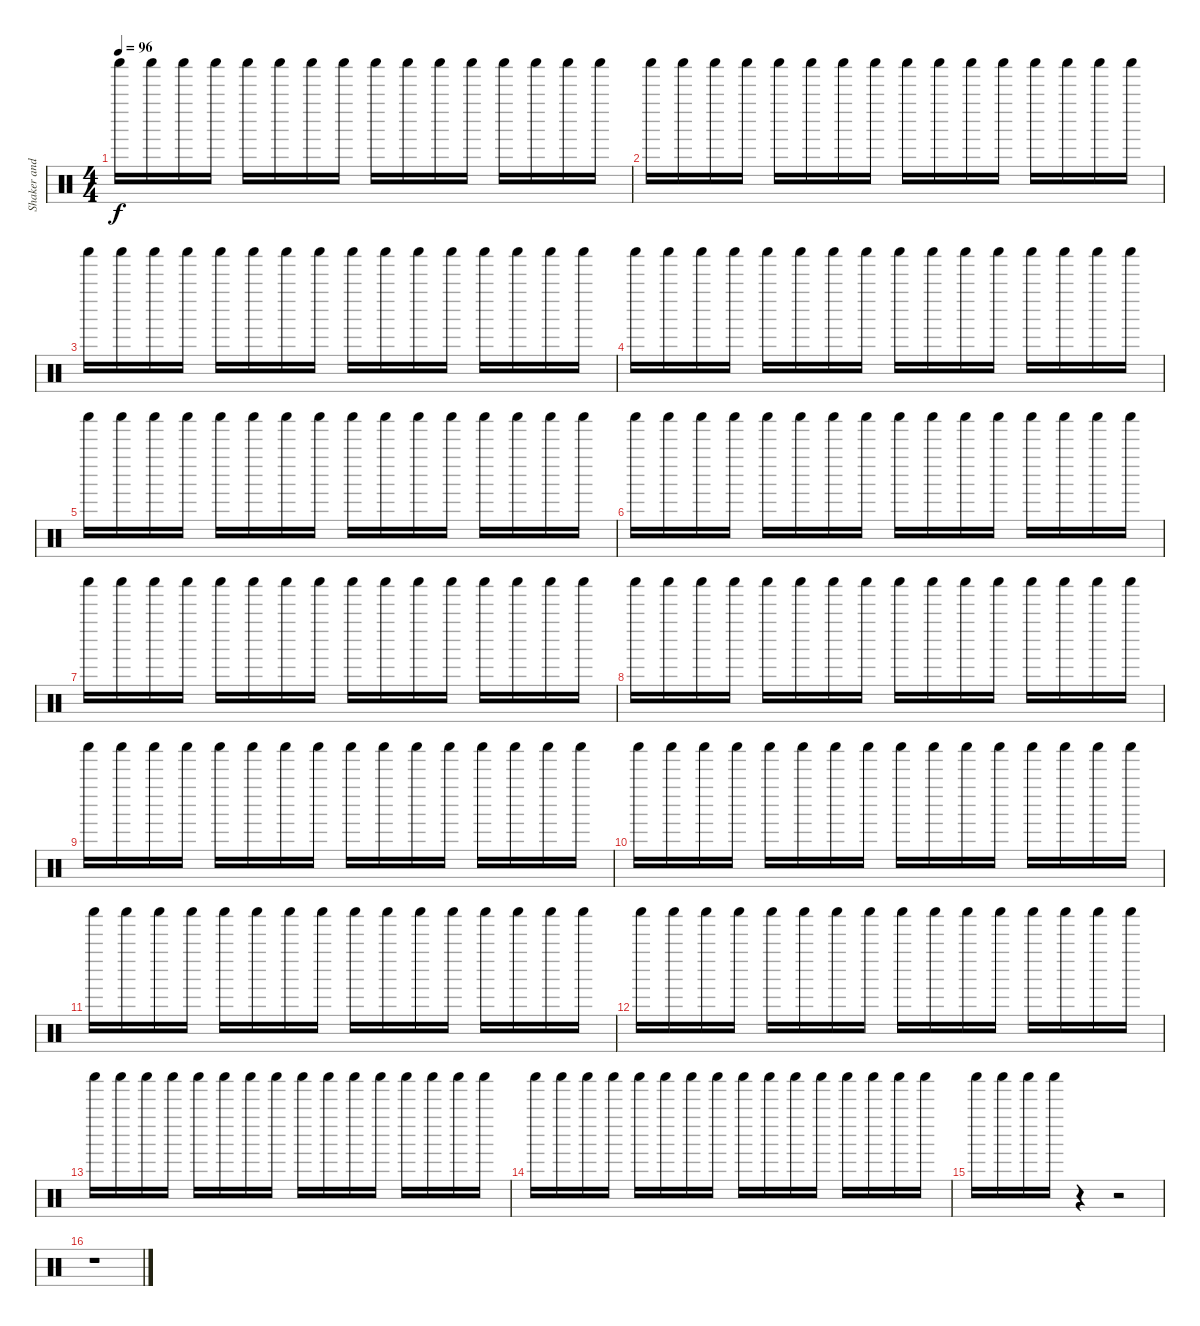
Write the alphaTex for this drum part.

\track ("Shaker and Tambourine" "Shaker and") {instrument percussion}
\staff {score}
\articulation defaults
\ts (4 4)
\tempo 96
\clef neutral
\ks c "Shaker (hit)".16{dy f} "Shaker (hit)".16 "Shaker (hit)".16 "Shaker (hit)".16 "Shaker (hit)".16 "Shaker (hit)".16 "Shaker (hit)".16 "Shaker (hit)".16 "Shaker (hit)".16 "Shaker (hit)".16 "Shaker (hit)".16 "Shaker (hit)".16 "Shaker (hit)".16 "Shaker (hit)".16 "Shaker (hit)".16 "Shaker (hit)".16
|
"Shaker (hit)".16 "Shaker (hit)".16 "Shaker (hit)".16 "Shaker (hit)".16 "Shaker (hit)".16 "Shaker (hit)".16 "Shaker (hit)".16 "Shaker (hit)".16 "Shaker (hit)".16 "Shaker (hit)".16 "Shaker (hit)".16 "Shaker (hit)".16 "Shaker (hit)".16 "Shaker (hit)".16 "Shaker (hit)".16 "Shaker (hit)".16 |
"Shaker (hit)".16 "Shaker (hit)".16 "Shaker (hit)".16 "Shaker (hit)".16 "Shaker (hit)".16 "Shaker (hit)".16 "Shaker (hit)".16 "Shaker (hit)".16 "Shaker (hit)".16 "Shaker (hit)".16 "Shaker (hit)".16 "Shaker (hit)".16 "Shaker (hit)".16 "Shaker (hit)".16 "Shaker (hit)".16 "Shaker (hit)".16 |
"Shaker (hit)".16 "Shaker (hit)".16 "Shaker (hit)".16 "Shaker (hit)".16 "Shaker (hit)".16 "Shaker (hit)".16 "Shaker (hit)".16 "Shaker (hit)".16 "Shaker (hit)".16 "Shaker (hit)".16 "Shaker (hit)".16 "Shaker (hit)".16 "Shaker (hit)".16 "Shaker (hit)".16 "Shaker (hit)".16 "Shaker (hit)".16 |
"Shaker (hit)".16 "Shaker (hit)".16 "Shaker (hit)".16 "Shaker (hit)".16 "Shaker (hit)".16 "Shaker (hit)".16 "Shaker (hit)".16 "Shaker (hit)".16 "Shaker (hit)".16 "Shaker (hit)".16 "Shaker (hit)".16 "Shaker (hit)".16 "Shaker (hit)".16 "Shaker (hit)".16 "Shaker (hit)".16 "Shaker (hit)".16 |
"Shaker (hit)".16 "Shaker (hit)".16 "Shaker (hit)".16 "Shaker (hit)".16 "Shaker (hit)".16 "Shaker (hit)".16 "Shaker (hit)".16 "Shaker (hit)".16 "Shaker (hit)".16 "Shaker (hit)".16 "Shaker (hit)".16 "Shaker (hit)".16 "Shaker (hit)".16 "Shaker (hit)".16 "Shaker (hit)".16 "Shaker (hit)".16 |
"Shaker (hit)".16 "Shaker (hit)".16 "Shaker (hit)".16 "Shaker (hit)".16 "Shaker (hit)".16 "Shaker (hit)".16 "Shaker (hit)".16 "Shaker (hit)".16 "Shaker (hit)".16 "Shaker (hit)".16 "Shaker (hit)".16 "Shaker (hit)".16 "Shaker (hit)".16 "Shaker (hit)".16 "Shaker (hit)".16 "Shaker (hit)".16 |
"Shaker (hit)".16 "Shaker (hit)".16 "Shaker (hit)".16 "Shaker (hit)".16 "Shaker (hit)".16 "Shaker (hit)".16 "Shaker (hit)".16 "Shaker (hit)".16 "Shaker (hit)".16 "Shaker (hit)".16 "Shaker (hit)".16 "Shaker (hit)".16 "Shaker (hit)".16 "Shaker (hit)".16 "Shaker (hit)".16 "Shaker (hit)".16 |
"Shaker (hit)".16 "Shaker (hit)".16 "Shaker (hit)".16 "Shaker (hit)".16 "Shaker (hit)".16 "Shaker (hit)".16 "Shaker (hit)".16 "Shaker (hit)".16 "Shaker (hit)".16 "Shaker (hit)".16 "Shaker (hit)".16 "Shaker (hit)".16 "Shaker (hit)".16 "Shaker (hit)".16 "Shaker (hit)".16 "Shaker (hit)".16 |
"Shaker (hit)".16 "Shaker (hit)".16 "Shaker (hit)".16 "Shaker (hit)".16 "Shaker (hit)".16 "Shaker (hit)".16 "Shaker (hit)".16 "Shaker (hit)".16 "Shaker (hit)".16 "Shaker (hit)".16 "Shaker (hit)".16 "Shaker (hit)".16 "Shaker (hit)".16 "Shaker (hit)".16 "Shaker (hit)".16 "Shaker (hit)".16 |
"Shaker (hit)".16 "Shaker (hit)".16 "Shaker (hit)".16 "Shaker (hit)".16 "Shaker (hit)".16 "Shaker (hit)".16 "Shaker (hit)".16 "Shaker (hit)".16 "Shaker (hit)".16 "Shaker (hit)".16 "Shaker (hit)".16 "Shaker (hit)".16 "Shaker (hit)".16 "Shaker (hit)".16 "Shaker (hit)".16 "Shaker (hit)".16 |
"Shaker (hit)".16 "Shaker (hit)".16 "Shaker (hit)".16 "Shaker (hit)".16 "Shaker (hit)".16 "Shaker (hit)".16 "Shaker (hit)".16 "Shaker (hit)".16 "Shaker (hit)".16 "Shaker (hit)".16 "Shaker (hit)".16 "Shaker (hit)".16 "Shaker (hit)".16 "Shaker (hit)".16 "Shaker (hit)".16 "Shaker (hit)".16 |
"Shaker (hit)".16 "Shaker (hit)".16 "Shaker (hit)".16 "Shaker (hit)".16 "Shaker (hit)".16 "Shaker (hit)".16 "Shaker (hit)".16 "Shaker (hit)".16 "Shaker (hit)".16 "Shaker (hit)".16 "Shaker (hit)".16 "Shaker (hit)".16 "Shaker (hit)".16 "Shaker (hit)".16 "Shaker (hit)".16 "Shaker (hit)".16 |
"Shaker (hit)".16 "Shaker (hit)".16 "Shaker (hit)".16 "Shaker (hit)".16 "Shaker (hit)".16 "Shaker (hit)".16 "Shaker (hit)".16 "Shaker (hit)".16 "Shaker (hit)".16 "Shaker (hit)".16 "Shaker (hit)".16 "Shaker (hit)".16 "Shaker (hit)".16 "Shaker (hit)".16 "Shaker (hit)".16 "Shaker (hit)".16 |
"Shaker (hit)".16 "Shaker (hit)".16 "Shaker (hit)".16 "Shaker (hit)".16 r.4 r.2 |
r.1
